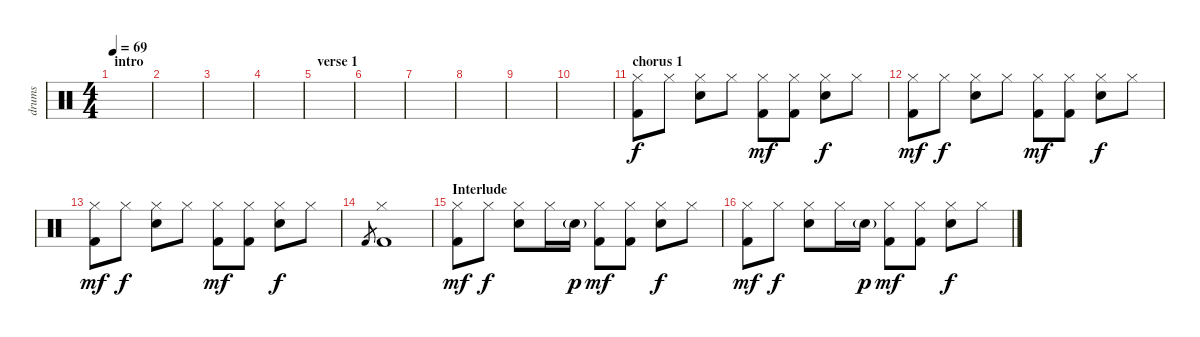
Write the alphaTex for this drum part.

\track ("drums" "drums") {instrument percussion}
\staff {score}
\articulation defaults
\ts (4 4)
\section ("" "intro")
\tempo 69
\clef neutral
\ks c
|
|
|
|
\section ("" "verse 1")
|
|
|
|
|
|
\section ("" "chorus 1")
("Hi-Hat (closed)" "Kick (hit) 2").8 "Hi-Hat (closed)".8{dy f} ("Hi-Hat (closed)" "Electric Snare (hit)").8 "Hi-Hat (closed)".8 ("Hi-Hat (closed)" "Kick (hit) 2").8{dy mf} ("Hi-Hat (closed)" "Kick (hit) 2").8 ("Hi-Hat (closed)" "Electric Snare (hit)").8{dy f} "Hi-Hat (closed)".8 |
("Hi-Hat (closed)" "Kick (hit) 2").8{dy mf} "Hi-Hat (closed)".8{dy f} ("Hi-Hat (closed)" "Electric Snare (hit)").8 "Hi-Hat (closed)".8 ("Hi-Hat (closed)" "Kick (hit) 2").8{dy mf} ("Hi-Hat (closed)" "Kick (hit) 2").8 ("Hi-Hat (closed)" "Electric Snare (hit)").8{dy f} "Hi-Hat (closed)".8 |
("Hi-Hat (closed)" "Kick (hit) 2").8{dy mf} "Hi-Hat (closed)".8{dy f} ("Hi-Hat (closed)" "Electric Snare (hit)").8 "Hi-Hat (closed)".8 ("Hi-Hat (closed)" "Kick (hit) 2").8{dy mf} ("Hi-Hat (closed)" "Kick (hit) 2").8 ("Hi-Hat (closed)" "Electric Snare (hit)").8{dy f} "Hi-Hat (closed)".8 |
"Kick (hit) 2".8{gr} ("Hi-Hat (closed)" "Kick (hit) 2").1 |
\section ("" "Interlude")
("Hi-Hat (closed)" "Kick (hit) 2").8{dy mf} "Hi-Hat (closed)".8{dy f} ("Hi-Hat (closed)" "Electric Snare (hit)").8 "Hi-Hat (closed)".16 "Electric Snare (hit)"{g}.16{dy p} ("Hi-Hat (closed)" "Kick (hit) 2").8{dy mf} ("Hi-Hat (closed)" "Kick (hit) 2").8 ("Hi-Hat (closed)" "Electric Snare (hit)").8{dy f} "Hi-Hat (closed)".8 |
("Hi-Hat (closed)" "Kick (hit) 2").8{dy mf} "Hi-Hat (closed)".8{dy f} ("Hi-Hat (closed)" "Electric Snare (hit)").8 "Hi-Hat (closed)".16 "Electric Snare (hit)"{g}.16{dy p} ("Hi-Hat (closed)" "Kick (hit) 2").8{dy mf} ("Hi-Hat (closed)" "Kick (hit) 2").8 ("Hi-Hat (closed)" "Electric Snare (hit)").8{dy f} "Hi-Hat (closed)".8
